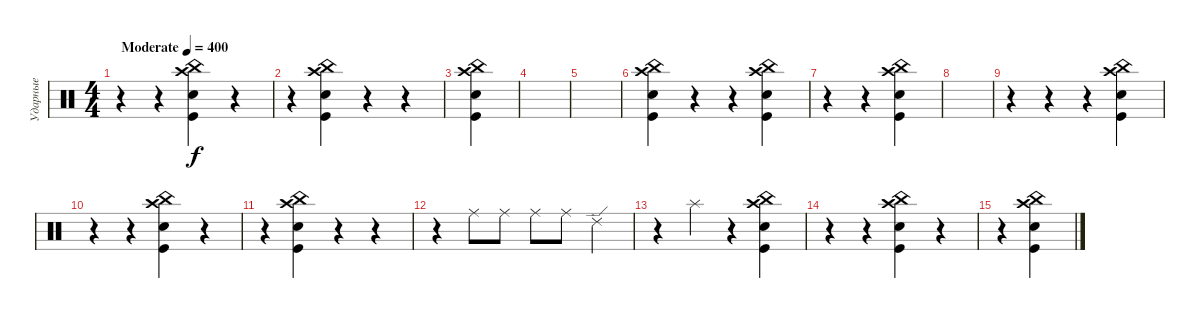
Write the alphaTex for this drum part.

\track ("Ударные" "Ударные") {instrument percussion}
\staff {score}
\articulation defaults
\ts (4 4)
\tempo (400 "Moderate")
\clef neutral
\ks c
r.4{dy f} r.4 ("Kick (hit)" "Electric Snare (hit)" "Crash high (hit)" "China (hit)").4 r.4 |
r.4 ("China (hit)" "Crash high (hit)" "Kick (hit)" "Electric Snare (hit)").4 r.4 r.4 |
("Electric Snare (hit)" "Kick (hit)" "Crash high (hit)" "China (hit)").4 |
|
|
("Electric Snare (hit)" "China (hit)" "Crash high (hit)" "Kick (hit)").4 r.4 r.4 ("China (hit)" "Crash high (hit)" "Kick (hit)" "Electric Snare (hit)").4 |
r.4 r.4 ("Electric Snare (hit)" "Kick (hit)" "Crash high (hit)" "China (hit)").4 |
|
r.4 r.4 r.4 ("Kick (hit)" "Electric Snare (hit)" "China (hit)" "Crash high (hit)").4 |
r.4 r.4 ("Crash high (hit)" "China (hit)" "Electric Snare (hit)" "Kick (hit)").4 r.4 |
r.4 ("Crash high (hit)" "China (hit)" "Kick (hit)" "Electric Snare (hit)").4 r.4 r.4 |
r.4 "Ride (middle)".8 "Ride (middle)".8 "Ride (middle)".8 "Ride (middle)".8 "Ride (edge) 2".4 |
r.4 "Splash (hit)".4 r.4 ("Kick (hit)" "Electric Snare (hit)" "Crash high (hit)" "China (hit)").4 |
r.4 r.4 ("China (hit)" "Crash high (hit)" "Electric Snare (hit)" "Kick (hit)").4 r.4 |
r.4 ("Kick (hit)" "Electric Snare (hit)" "Crash high (hit)" "China (hit)").4
